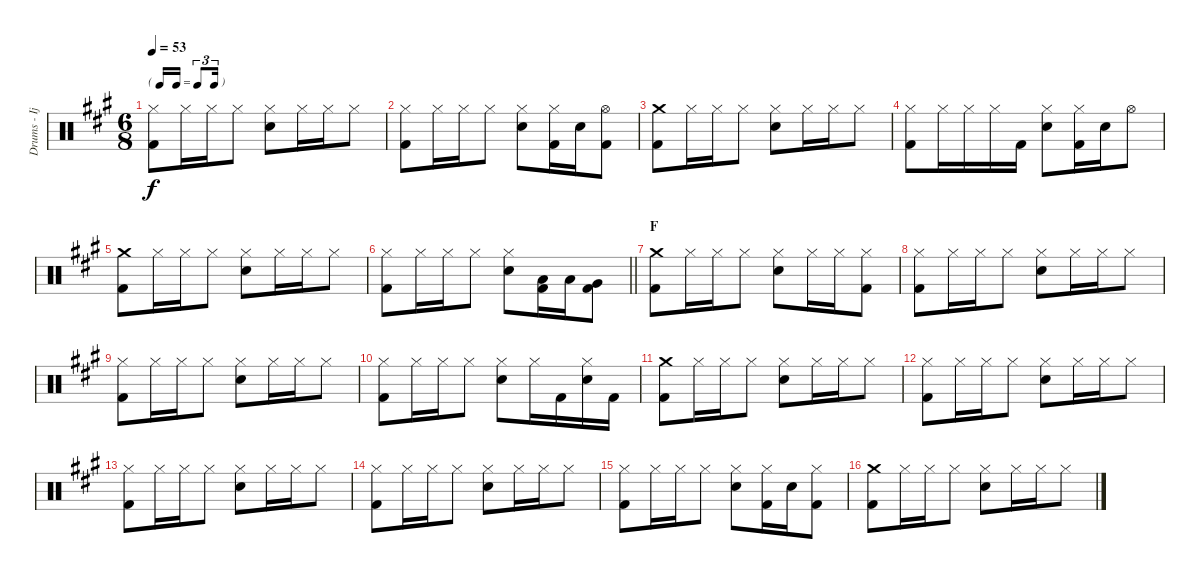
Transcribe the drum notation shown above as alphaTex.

\track ("Drums - Ijichi Kiyoshi" "Drums - Ij") {instrument percussion}
\staff {score}
\articulation defaults
\ts (6 8)
\tf triplet16th
\tempo 53
\clef neutral
\ks a
("Hi-Hat (closed)" "Kick (hit) 2").8{dy f} "Hi-Hat (closed)".16 "Hi-Hat (closed)".16 "Hi-Hat (closed)".8 ("Hi-Hat (closed)" "Electric Snare (hit)").8 "Hi-Hat (closed)".16 "Hi-Hat (closed)".16 "Hi-Hat (closed)".8 |
("Hi-Hat (closed)" "Kick (hit) 2").8 "Hi-Hat (closed)".16 "Hi-Hat (closed)".16 "Hi-Hat (closed)".8 ("Hi-Hat (closed)" "Electric Snare (hit)").8 ("Hi-Hat (closed)" "Kick (hit) 2").16 "Electric Snare (hit)".16 ("Hi-Hat (open)" "Kick (hit) 2").8 |
("Crash medium (hit)" "Kick (hit) 2").8 "Hi-Hat (closed)".16 "Hi-Hat (closed)".16 "Hi-Hat (closed)".8 ("Hi-Hat (closed)" "Electric Snare (hit)").8 "Hi-Hat (closed)".16 "Hi-Hat (closed)".16 "Hi-Hat (closed)".8 |
("Hi-Hat (closed)" "Kick (hit) 2").8 "Hi-Hat (closed)".16 "Hi-Hat (closed)".16 "Hi-Hat (closed)".16 "Kick (hit) 2".16 ("Hi-Hat (closed)" "Electric Snare (hit)").8 ("Hi-Hat (closed)" "Kick (hit) 2").16 "Electric Snare (hit)".16 "Hi-Hat (open)".8 |
("Crash medium (hit)" "Kick (hit) 2").8 "Hi-Hat (closed)".16 "Hi-Hat (closed)".16 "Hi-Hat (closed)".8 ("Hi-Hat (closed)" "Electric Snare (hit)").8 "Hi-Hat (closed)".16 "Hi-Hat (closed)".16 "Hi-Hat (closed)".8 |
\barLineRight lightlight
("Hi-Hat (closed)" "Kick (hit) 2").8 "Hi-Hat (closed)".16 "Hi-Hat (closed)".16 "Hi-Hat (closed)".8 ("Hi-Hat (closed)" "Electric Snare (hit)").8 ("Low Tom (hit)" "Kick (hit) 2").16 "Low Tom (hit)".16 ("Very Low Tom (hit)" "Kick (hit) 2").8 |
\section ("" "F")
("Crash medium (hit)" "Kick (hit) 2").8 "Hi-Hat (closed)".16 "Hi-Hat (closed)".16 "Hi-Hat (closed)".8 ("Hi-Hat (closed)" "Electric Snare (hit)").8 "Hi-Hat (closed)".16 "Hi-Hat (closed)".16 ("Hi-Hat (closed)" "Kick (hit) 2").8 |
("Hi-Hat (closed)" "Kick (hit) 2").8 "Hi-Hat (closed)".16 "Hi-Hat (closed)".16 "Hi-Hat (closed)".8 ("Hi-Hat (closed)" "Electric Snare (hit)").8 "Hi-Hat (closed)".16 "Hi-Hat (closed)".16 "Hi-Hat (closed)".8 |
("Hi-Hat (closed)" "Kick (hit) 2").8 "Hi-Hat (closed)".16 "Hi-Hat (closed)".16 "Hi-Hat (closed)".8 ("Hi-Hat (closed)" "Electric Snare (hit)").8 "Hi-Hat (closed)".16 "Hi-Hat (closed)".16 "Hi-Hat (closed)".8 |
("Hi-Hat (closed)" "Kick (hit) 2").8 "Hi-Hat (closed)".16 "Hi-Hat (closed)".16 "Hi-Hat (closed)".8 ("Hi-Hat (closed)" "Electric Snare (hit)").8 "Hi-Hat (closed)".16 "Kick (hit) 2".16 ("Hi-Hat (closed)" "Electric Snare (hit)").16 "Kick (hit) 2".16 |
("Crash medium (hit)" "Kick (hit) 2").8 "Hi-Hat (closed)".16 "Hi-Hat (closed)".16 "Hi-Hat (closed)".8 ("Hi-Hat (closed)" "Electric Snare (hit)").8 "Hi-Hat (closed)".16 "Hi-Hat (closed)".16 "Hi-Hat (closed)".8 |
("Hi-Hat (closed)" "Kick (hit) 2").8 "Hi-Hat (closed)".16 "Hi-Hat (closed)".16 "Hi-Hat (closed)".8 ("Hi-Hat (closed)" "Electric Snare (hit)").8 "Hi-Hat (closed)".16 "Hi-Hat (closed)".16 "Hi-Hat (closed)".8 |
("Hi-Hat (closed)" "Kick (hit) 2").8 "Hi-Hat (closed)".16 "Hi-Hat (closed)".16 "Hi-Hat (closed)".8 ("Hi-Hat (closed)" "Electric Snare (hit)").8 "Hi-Hat (closed)".16 "Hi-Hat (closed)".16 "Hi-Hat (closed)".8 |
("Hi-Hat (closed)" "Kick (hit) 2").8 "Hi-Hat (closed)".16 "Hi-Hat (closed)".16 "Hi-Hat (closed)".8 ("Hi-Hat (closed)" "Electric Snare (hit)").8 "Hi-Hat (closed)".16 "Hi-Hat (closed)".16 "Hi-Hat (closed)".8 |
("Hi-Hat (closed)" "Kick (hit) 2").8 "Hi-Hat (closed)".16 "Hi-Hat (closed)".16 "Hi-Hat (closed)".8 ("Hi-Hat (closed)" "Electric Snare (hit)").8 ("Hi-Hat (closed)" "Kick (hit) 2").16 "Electric Snare (hit)".16 ("Hi-Hat (closed)" "Kick (hit) 2").8 |
("Crash medium (hit)" "Kick (hit) 2").8 "Hi-Hat (closed)".16 "Hi-Hat (closed)".16 "Hi-Hat (closed)".8 ("Hi-Hat (closed)" "Electric Snare (hit)").8 "Hi-Hat (closed)".16 "Hi-Hat (closed)".16 "Hi-Hat (closed)".8
